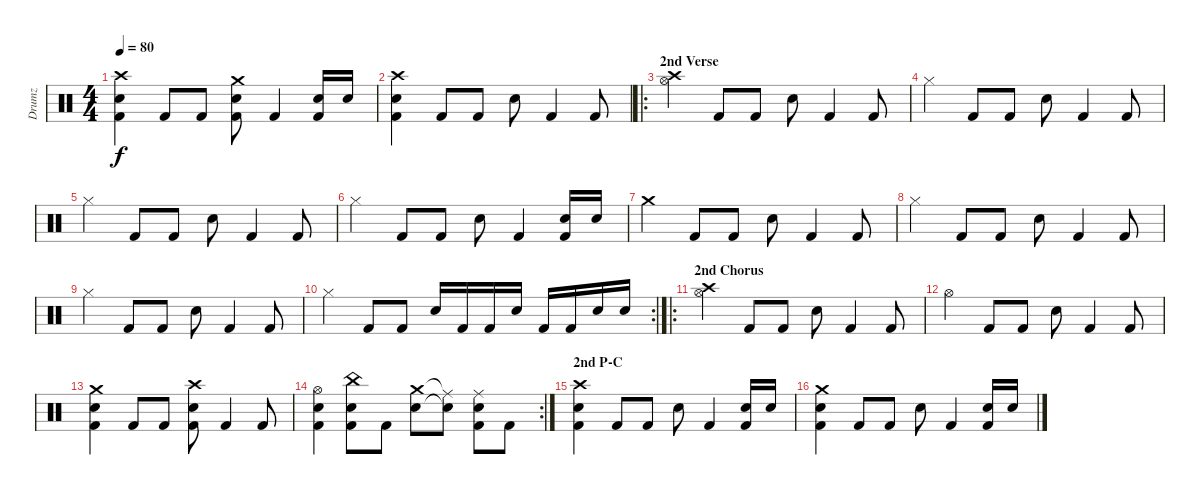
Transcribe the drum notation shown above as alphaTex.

\track ("Drumz" "Drumz") {instrument percussion}
\staff {score}
\articulation defaults
\ts (4 4)
\tempo 80
\clef neutral
\ks c
("Crash high (hit)" "Snare (hit) 2" "Kick (hit) 2").4{dy f} "Kick (hit) 2".8 "Kick (hit) 2".8 ("Crash medium (hit)" "Snare (hit) 2" "Kick (hit) 2").8 "Kick (hit) 2".4 ("Snare (hit) 2" "Kick (hit) 2").16 "Snare (hit) 2".16 |
("Crash high (hit)" "Snare (hit) 2" "Kick (hit) 2").4 "Kick (hit) 2".8 "Kick (hit) 2".8 "Snare (hit) 2".8 "Kick (hit) 2".4 "Kick (hit) 2".8 |
\ro
\section ("" "2nd Verse")
("Hi-Hat (open)" "Crash high (hit)").4{volume 7} "Kick (hit) 2".8 "Kick (hit) 2".8 "Snare (hit) 2".8 "Kick (hit) 2".4 "Kick (hit) 2".8 |
"Hi-Hat (closed)".4 "Kick (hit) 2".8 "Kick (hit) 2".8 "Snare (hit) 2".8 "Kick (hit) 2".4 "Kick (hit) 2".8 |
"Hi-Hat (closed)".4 "Kick (hit) 2".8 "Kick (hit) 2".8 "Snare (hit) 2".8 "Kick (hit) 2".4 "Kick (hit) 2".8 |
"Hi-Hat (closed)".4 "Kick (hit) 2".8 "Kick (hit) 2".8 "Snare (hit) 2".8 "Kick (hit) 2".4 ("Snare (hit) 2" "Kick (hit) 2").16 "Snare (hit) 2".16 |
"Crash medium (hit)".4 "Kick (hit) 2".8 "Kick (hit) 2".8 "Snare (hit) 2".8 "Kick (hit) 2".4 "Kick (hit) 2".8 |
"Hi-Hat (closed)".4 "Kick (hit) 2".8 "Kick (hit) 2".8 "Snare (hit) 2".8 "Kick (hit) 2".4 "Kick (hit) 2".8 |
"Hi-Hat (closed)".4 "Kick (hit) 2".8 "Kick (hit) 2".8 "Snare (hit) 2".8 "Kick (hit) 2".4 "Kick (hit) 2".8 |
\rc 2 "Hi-Hat (closed)".4 "Kick (hit) 2".8 "Kick (hit) 2".8 "Snare (hit) 2".16 "Kick (hit) 2".16 "Kick (hit) 2".16 "Snare (hit) 2".16 "Kick (hit) 2".16 "Kick (hit) 2".16 "Snare (hit) 2".16 "Snare (hit) 2".16
|
\ro
\section ("" "2nd Chorus")
("Hi-Hat (open)" "Crash high (hit)").4{volume 16} "Kick (hit) 2".8 "Kick (hit) 2".8 "Snare (hit) 2".8 "Kick (hit) 2".4 "Kick (hit) 2".8 |
"Hi-Hat (open)".4 "Kick (hit) 2".8 "Kick (hit) 2".8 "Snare (hit) 2".8 "Kick (hit) 2".4 "Kick (hit) 2".8 |
("Crash medium (hit)" "Snare (hit) 2" "Kick (hit) 2").4 "Kick (hit) 2".8 "Kick (hit) 2".8 ("Crash high (hit)" "Snare (hit) 2" "Kick (hit) 2").8 "Kick (hit) 2".4 "Kick (hit) 2".8 |
\rc 2
("Hi-Hat (open)" "Snare (hit) 2" "Kick (hit) 2").4 ("China (hit)" "Snare (hit) 2" "Kick (hit) 2").8 "Kick (hit) 2".8 ("Crash medium (hit)" "Snare (hit) 2").8 ("Ride (middle)"{t} "Snare (hit) 2"{t}).8 ("Ride (middle)" "Snare (hit) 2" "Kick (hit) 2").8 "Kick (hit) 2".8 |
\section ("" "2nd P-C")
("Crash high (hit)" "Snare (hit) 2" "Kick (hit) 2").4 "Kick (hit) 2".8 "Kick (hit) 2".8 "Snare (hit) 2".8 "Kick (hit) 2".4 ("Snare (hit) 2" "Kick (hit) 2").16 "Snare (hit) 2".16 |
("Crash medium (hit)" "Snare (hit) 2" "Kick (hit) 2").4 "Kick (hit) 2".8 "Kick (hit) 2".8 "Snare (hit) 2".8 "Kick (hit) 2".4 ("Snare (hit) 2" "Kick (hit) 2").16 "Snare (hit) 2".16
